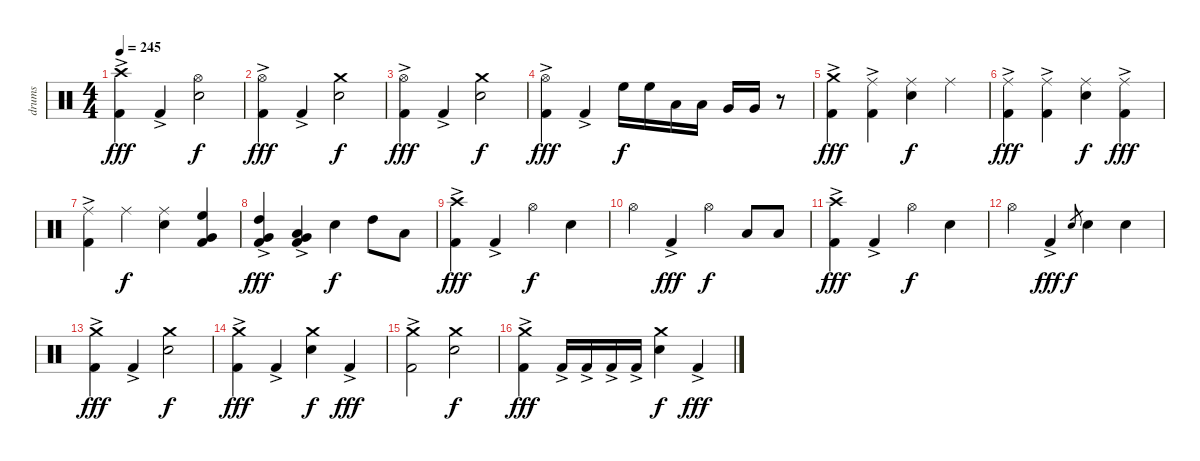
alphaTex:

\track ("drums" "drums") {instrument percussion}
\staff {score}
\articulation defaults
\ts (4 4)
\tempo 245
\clef neutral
\ks c
("Crash high (hit)" "Kick (hit) 2"{ac}).4{dy fff} "Kick (hit) 2"{ac}.4 ("Hi-Hat (open)" "Electric Snare (hit)").2{dy f} |
("Hi-Hat (open)" "Kick (hit) 2"{ac}).4{dy fff} "Kick (hit) 2"{ac}.4 ("Crash medium (hit)" "Electric Snare (hit)").2{dy f} |
("Hi-Hat (open)" "Kick (hit) 2"{ac}).4{dy fff} "Kick (hit) 2"{ac}.4 ("Crash medium (hit)" "Electric Snare (hit)").2{dy f} |
("Hi-Hat (open)" "Kick (hit) 2"{ac}).4{dy fff} "Kick (hit) 2"{ac}.4 "High Floor Tom (hit)".16{dy f} "High Floor Tom (hit)".16 "Low Tom (hit)".16 "Low Tom (hit)".16 "Very Low Tom (hit)".16 "Very Low Tom (hit)".16 r.8 |
("Crash medium (hit)" "Kick (hit) 2"{ac}).4{dy fff} ("Ride (middle)" "Kick (hit) 2"{ac}).4 ("Ride (middle)" "Electric Snare (hit)").4{dy f} "Ride (middle)".4 |
("Ride (middle)" "Kick (hit) 2"{ac}).4{dy fff} ("Ride (middle)" "Kick (hit) 2"{ac}).4 ("Ride (middle)" "Electric Snare (hit)").4{dy f} ("Ride (middle)" "Kick (hit) 2"{ac}).4{dy fff} |
("Ride (middle)" "Kick (hit) 2"{ac}).4 "Ride (middle)".4{dy f} ("Ride (middle)" "Electric Snare (hit)").4 ("High Floor Tom (hit)" "Very Low Tom (hit)" "Kick (hit) 2").4 |
("High Tom (hit)" "Very Low Tom (hit)" "Kick (hit) 2"{ac}).4{dy fff} ("Low Tom (hit)" "Very Low Tom (hit)" "Kick (hit) 2"{ac}).4 "Electric Snare (hit)".4{dy f} "High Tom (hit)".8 "Low Tom (hit)".8 |
("Crash high (hit)" "Kick (hit) 2"{ac}).4{dy fff} "Kick (hit) 2"{ac}.4 "Hi-Hat (open)".4{dy f} "Electric Snare (hit)".4 |
"Hi-Hat (open)".4 "Kick (hit) 2"{ac}.4{dy fff} "Hi-Hat (open)".4{dy f} "Low Tom (hit)".8 "Low Tom (hit)".8 |
("Crash high (hit)" "Kick (hit) 2"{ac}).4{dy fff} "Kick (hit) 2"{ac}.4 "Hi-Hat (open)".4{dy f} "Electric Snare (hit)".4 |
"Hi-Hat (open)".4 "Kick (hit) 2"{ac}.4{dy fff} "Electric Snare (hit)".8{gr dy f} "Electric Snare (hit)".4 "Electric Snare (hit)".4 |
("Crash medium (hit)" "Kick (hit) 2"{ac}).4{dy fff} "Kick (hit) 2"{ac}.4 ("Crash medium (hit)" "Electric Snare (hit)").2{dy f} |
("Crash medium (hit)" "Kick (hit) 2"{ac}).4{dy fff} "Kick (hit) 2"{ac}.4 ("Crash medium (hit)" "Electric Snare (hit)").4{dy f} "Kick (hit) 2"{ac}.4{dy fff} |
("Crash medium (hit)" "Kick (hit) 2"{ac}).2 ("Crash medium (hit)" "Electric Snare (hit)").2{dy f} |
("Crash medium (hit)" "Kick (hit) 2"{ac}).4{dy fff} "Kick (hit) 2"{ac}.16 "Kick (hit) 2"{ac}.16 "Kick (hit) 2"{ac}.16 "Kick (hit) 2"{ac}.16 ("Crash medium (hit)" "Electric Snare (hit)").4{dy f} "Kick (hit) 2"{ac}.4{dy fff}
